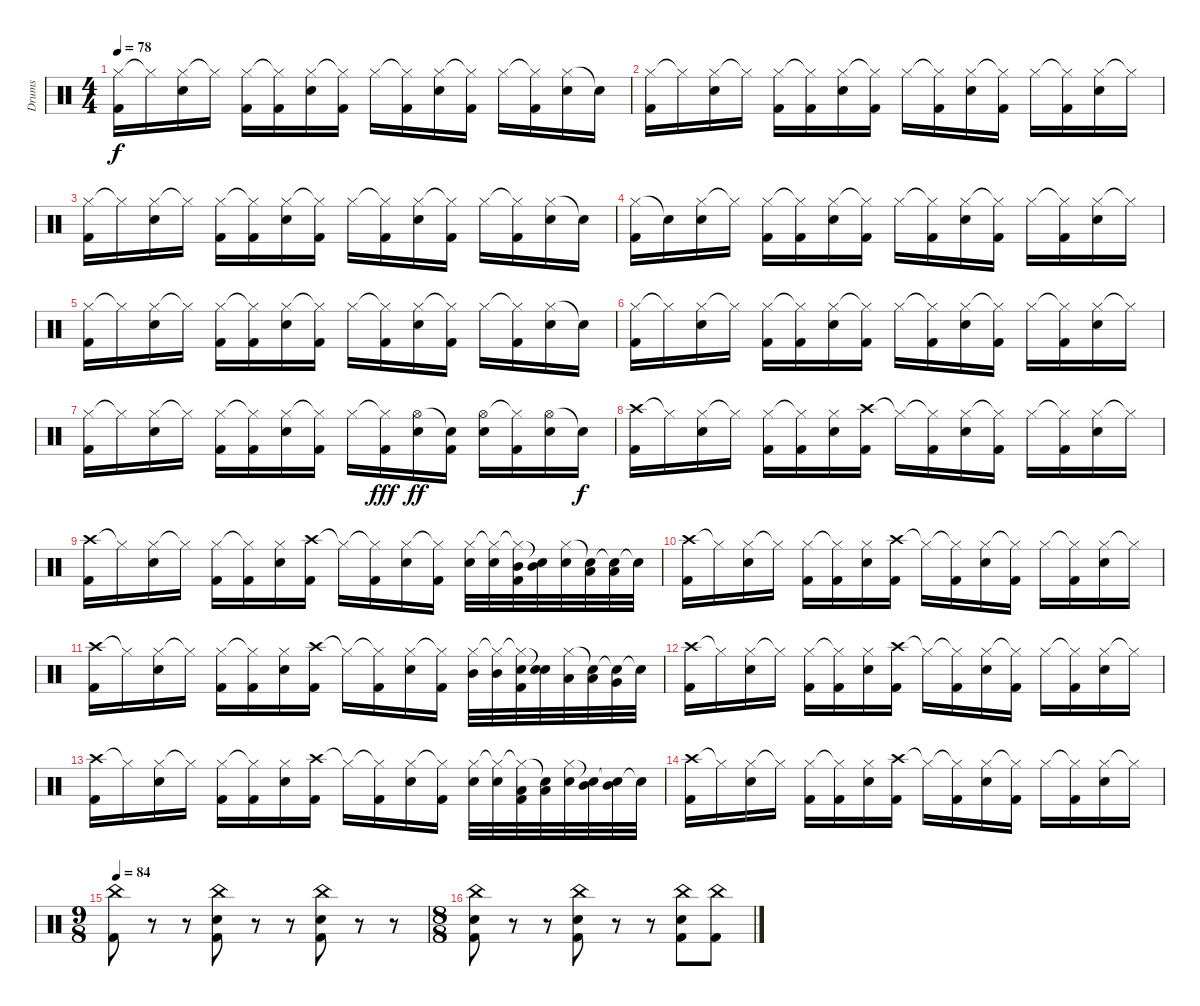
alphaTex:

\track ("Drums" "Drums") {instrument percussion}
\staff {score}
\articulation defaults
\ts (4 4)
\tempo 78
\clef neutral
\ks c
("Hi-Hat (closed)" "Kick (hit) 2").16{dy f} "Hi-Hat (closed)"{t}.16 ("Hi-Hat (closed)" "Electric Snare (hit)").16 "Hi-Hat (closed)"{t}.16 ("Hi-Hat (closed)" "Kick (hit) 2").16 ("Hi-Hat (closed)"{t} "Kick (hit) 2").16 ("Hi-Hat (closed)" "Electric Snare (hit)").16 ("Hi-Hat (closed)"{t} "Kick (hit) 2").16 "Hi-Hat (closed)".16 ("Hi-Hat (closed)"{t} "Kick (hit) 2").16 ("Hi-Hat (closed)" "Electric Snare (hit)").16 ("Hi-Hat (closed)"{t} "Kick (hit) 2").16 "Hi-Hat (closed)".16 ("Hi-Hat (closed)"{t} "Kick (hit) 2").16 ("Hi-Hat (closed)" "Electric Snare (hit)").16 "Snare (hit)"{t}.16 |
("Hi-Hat (closed)" "Kick (hit) 2").16 "Hi-Hat (closed)"{t}.16 ("Hi-Hat (closed)" "Electric Snare (hit)").16 "Hi-Hat (closed)"{t}.16 ("Hi-Hat (closed)" "Kick (hit) 2").16 ("Hi-Hat (closed)"{t} "Kick (hit) 2").16 ("Hi-Hat (closed)" "Electric Snare (hit)").16 ("Hi-Hat (closed)"{t} "Kick (hit) 2").16 "Hi-Hat (closed)".16 ("Hi-Hat (closed)"{t} "Kick (hit) 2").16 ("Hi-Hat (closed)" "Electric Snare (hit)").16 ("Hi-Hat (closed)"{t} "Kick (hit) 2").16 "Hi-Hat (closed)".16 ("Hi-Hat (closed)"{t} "Kick (hit) 2").16 ("Hi-Hat (closed)" "Electric Snare (hit)").16 "Hi-Hat (closed)"{t}.16 |
("Hi-Hat (closed)" "Kick (hit) 2").16 "Hi-Hat (closed)"{t}.16 ("Hi-Hat (closed)" "Electric Snare (hit)").16 "Hi-Hat (closed)"{t}.16 ("Hi-Hat (closed)" "Kick (hit) 2").16 ("Hi-Hat (closed)"{t} "Kick (hit) 2").16 ("Hi-Hat (closed)" "Electric Snare (hit)").16 ("Hi-Hat (closed)"{t} "Kick (hit) 2").16 "Hi-Hat (closed)".16 ("Hi-Hat (closed)"{t} "Kick (hit) 2").16 ("Hi-Hat (closed)" "Electric Snare (hit)").16 ("Hi-Hat (closed)"{t} "Kick (hit) 2").16 "Hi-Hat (closed)".16 ("Hi-Hat (closed)"{t} "Kick (hit) 2").16 ("Hi-Hat (closed)" "Electric Snare (hit)").16 "Snare (hit)"{t}.16 |
("Hi-Hat (closed)" "Kick (hit) 2").16 "Snare (hit)"{t}.16 ("Hi-Hat (closed)" "Electric Snare (hit)").16 "Hi-Hat (closed)"{t}.16 ("Hi-Hat (closed)" "Kick (hit) 2").16 ("Hi-Hat (closed)"{t} "Kick (hit) 2").16 ("Hi-Hat (closed)" "Electric Snare (hit)").16 ("Hi-Hat (closed)"{t} "Kick (hit) 2").16 "Hi-Hat (closed)".16 ("Hi-Hat (closed)"{t} "Kick (hit) 2").16 ("Hi-Hat (closed)" "Electric Snare (hit)").16 ("Hi-Hat (closed)"{t} "Kick (hit) 2").16 "Hi-Hat (closed)".16 ("Hi-Hat (closed)"{t} "Kick (hit) 2").16 ("Hi-Hat (closed)" "Electric Snare (hit)").16 "Hi-Hat (closed)"{t}.16 |
("Hi-Hat (closed)" "Kick (hit) 2").16 "Hi-Hat (closed)"{t}.16 ("Hi-Hat (closed)" "Electric Snare (hit)").16 "Hi-Hat (closed)"{t}.16 ("Hi-Hat (closed)" "Kick (hit) 2").16 ("Hi-Hat (closed)"{t} "Kick (hit) 2").16 ("Hi-Hat (closed)" "Electric Snare (hit)").16 ("Hi-Hat (closed)"{t} "Kick (hit) 2").16 "Hi-Hat (closed)".16 ("Hi-Hat (closed)"{t} "Kick (hit) 2").16 ("Hi-Hat (closed)" "Electric Snare (hit)").16 ("Hi-Hat (closed)"{t} "Kick (hit) 2").16 "Hi-Hat (closed)".16 ("Hi-Hat (closed)"{t} "Kick (hit) 2").16 ("Hi-Hat (closed)" "Electric Snare (hit)").16 "Snare (hit)"{t}.16 |
("Hi-Hat (closed)" "Kick (hit) 2").16 "Hi-Hat (closed)"{t}.16 ("Hi-Hat (closed)" "Electric Snare (hit)").16 "Hi-Hat (closed)"{t}.16 ("Hi-Hat (closed)" "Kick (hit) 2").16 ("Hi-Hat (closed)"{t} "Kick (hit) 2").16 ("Hi-Hat (closed)" "Electric Snare (hit)").16 ("Hi-Hat (closed)"{t} "Kick (hit) 2").16 "Hi-Hat (closed)".16 ("Hi-Hat (closed)"{t} "Kick (hit) 2").16 ("Hi-Hat (closed)" "Electric Snare (hit)").16 ("Hi-Hat (closed)"{t} "Kick (hit) 2").16 "Hi-Hat (closed)".16 ("Hi-Hat (closed)"{t} "Kick (hit) 2").16 ("Hi-Hat (closed)" "Electric Snare (hit)").16 "Hi-Hat (closed)"{t}.16 |
("Hi-Hat (closed)" "Kick (hit) 2").16 "Hi-Hat (closed)"{t}.16 ("Hi-Hat (closed)" "Electric Snare (hit)").16 "Hi-Hat (closed)"{t}.16 ("Hi-Hat (closed)" "Kick (hit) 2").16 ("Hi-Hat (closed)"{t} "Kick (hit) 2").16 ("Hi-Hat (closed)" "Electric Snare (hit)").16 ("Hi-Hat (closed)"{t} "Kick (hit) 2").16 "Hi-Hat (closed)".16 ("Hi-Hat (closed)"{t} "Kick (hit) 2").16{dy fff} ("Hi-Hat (open)" "Electric Snare (hit)").16{dy ff} ("Snare (hit)"{t} "Kick (hit) 2").16 ("Hi-Hat (open)" "Electric Snare (hit)").16 ("Hi-Hat (closed)"{t} "Kick (hit) 2").16 ("Hi-Hat (open)" "Electric Snare (hit)").16 "Snare (hit)"{t}.16{dy f} |
("Crash high (hit)" "Kick (hit) 2").16 "Hi-Hat (closed)"{t}.16 ("Hi-Hat (closed)" "Electric Snare (hit)").16 "Hi-Hat (closed)"{t}.16 ("Hi-Hat (closed)" "Kick (hit) 2").16 ("Hi-Hat (closed)"{t} "Kick (hit) 2").16 ("Hi-Hat (closed)" "Electric Snare (hit)").16 ("Crash high (hit)" "Kick (hit) 2").16 "Hi-Hat (closed)"{t}.16 ("Hi-Hat (closed)"{t} "Kick (hit) 2").16 ("Hi-Hat (closed)" "Electric Snare (hit)").16 ("Hi-Hat (closed)"{t} "Kick (hit) 2").16 "Hi-Hat (closed)".16 ("Hi-Hat (closed)"{t} "Kick (hit) 2").16 ("Hi-Hat (closed)" "Electric Snare (hit)").16 "Hi-Hat (closed)"{t}.16 |
("Crash high (hit)" "Kick (hit) 2").16 "Hi-Hat (closed)"{t}.16 ("Hi-Hat (closed)" "Electric Snare (hit)").16 "Hi-Hat (closed)"{t}.16 ("Hi-Hat (closed)" "Kick (hit) 2").16 ("Hi-Hat (closed)"{t} "Kick (hit) 2").16 ("Hi-Hat (closed)" "Electric Snare (hit)").16 ("Crash high (hit)" "Kick (hit) 2").16 "Hi-Hat (closed)"{t}.16 ("Hi-Hat (closed)"{t} "Kick (hit) 2").16 ("Hi-Hat (closed)" "Electric Snare (hit)").16 ("Hi-Hat (closed)"{t} "Kick (hit) 2").16 ("Hi-Hat (closed)" "Electric Snare (hit)").32 ("Hi-Hat (closed)"{t} "Electric Snare (hit)").32 ("Hi-Hat (closed)"{t} "Mid Tom (hit)" "Kick (hit) 2").32 ("Snare (hit)"{t} "Mid Tom (hit)").32 ("Hi-Hat (closed)" "Electric Snare (hit)").32 ("Snare (hit)"{t} "Low Tom (hit)").32 ("Snare (hit)"{t} "Low Tom (hit)").32 "Snare (hit)"{t}.32 |
("Crash high (hit)" "Kick (hit) 2").16 "Hi-Hat (closed)"{t}.16 ("Hi-Hat (closed)" "Electric Snare (hit)").16 "Hi-Hat (closed)"{t}.16 ("Hi-Hat (closed)" "Kick (hit) 2").16 ("Hi-Hat (closed)"{t} "Kick (hit) 2").16 ("Hi-Hat (closed)" "Electric Snare (hit)").16 ("Crash high (hit)" "Kick (hit) 2").16 "Hi-Hat (closed)"{t}.16 ("Hi-Hat (closed)"{t} "Kick (hit) 2").16 ("Hi-Hat (closed)" "Electric Snare (hit)").16 ("Hi-Hat (closed)"{t} "Kick (hit) 2").16 "Hi-Hat (closed)".16 ("Hi-Hat (closed)"{t} "Kick (hit) 2").16 ("Hi-Hat (closed)" "Electric Snare (hit)").16 "Hi-Hat (closed)"{t}.16 |
("Crash high (hit)" "Kick (hit) 2").16 "Hi-Hat (closed)"{t}.16 ("Hi-Hat (closed)" "Electric Snare (hit)").16 "Hi-Hat (closed)"{t}.16 ("Hi-Hat (closed)" "Kick (hit) 2").16 ("Hi-Hat (closed)"{t} "Kick (hit) 2").16 ("Hi-Hat (closed)" "Electric Snare (hit)").16 ("Crash high (hit)" "Kick (hit) 2").16 "Hi-Hat (closed)"{t}.16 ("Hi-Hat (closed)"{t} "Kick (hit) 2").16 ("Hi-Hat (closed)" "Electric Snare (hit)").16 ("Hi-Hat (closed)"{t} "Kick (hit) 2").16 ("Hi-Hat (closed)" "Mid Tom (hit)").32 ("Hi-Hat (closed)"{t} "Mid Tom (hit)").32 ("Hi-Hat (closed)"{t} "Electric Snare (hit)" "Kick (hit) 2").32 ("Snare (hit)"{t} "Electric Snare (hit)").32 ("Hi-Hat (closed)" "Low Tom (hit)").32 ("Snare (hit)"{t} "Low Tom (hit)").32 ("Snare (hit)"{t} "Very Low Tom (hit)").32 "Snare (hit)"{t}.32 |
("Crash high (hit)" "Kick (hit) 2").16 "Hi-Hat (closed)"{t}.16 ("Hi-Hat (closed)" "Electric Snare (hit)").16 "Hi-Hat (closed)"{t}.16 ("Hi-Hat (closed)" "Kick (hit) 2").16 ("Hi-Hat (closed)"{t} "Kick (hit) 2").16 ("Hi-Hat (closed)" "Electric Snare (hit)").16 ("Crash high (hit)" "Kick (hit) 2").16 "Hi-Hat (closed)"{t}.16 ("Hi-Hat (closed)"{t} "Kick (hit) 2").16 ("Hi-Hat (closed)" "Electric Snare (hit)").16 ("Hi-Hat (closed)"{t} "Kick (hit) 2").16 "Hi-Hat (closed)".16 ("Hi-Hat (closed)"{t} "Kick (hit) 2").16 ("Hi-Hat (closed)" "Electric Snare (hit)").16 "Hi-Hat (closed)"{t}.16 |
("Crash high (hit)" "Kick (hit) 2").16 "Hi-Hat (closed)"{t}.16 ("Hi-Hat (closed)" "Electric Snare (hit)").16 "Hi-Hat (closed)"{t}.16 ("Hi-Hat (closed)" "Kick (hit) 2").16 ("Hi-Hat (closed)"{t} "Kick (hit) 2").16 ("Hi-Hat (closed)" "Electric Snare (hit)").16 ("Crash high (hit)" "Kick (hit) 2").16 "Hi-Hat (closed)"{t}.16 ("Hi-Hat (closed)"{t} "Kick (hit) 2").16 ("Hi-Hat (closed)" "Electric Snare (hit)").16 ("Hi-Hat (closed)"{t} "Kick (hit) 2").16 ("Hi-Hat (closed)" "Electric Snare (hit)").32 ("Hi-Hat (closed)"{t} "Electric Snare (hit)").32 ("Hi-Hat (closed)"{t} "Low Tom (hit)" "Kick (hit) 2").32 ("Snare (hit)"{t} "Low Tom (hit)").32 ("Hi-Hat (closed)" "Electric Snare (hit)").32 ("Snare (hit)"{t} "Mid Tom (hit)").32 ("Snare (hit)"{t} "Mid Tom (hit)").32 "Snare (hit)"{t}.32 |
("Crash high (hit)" "Kick (hit) 2").16 "Hi-Hat (closed)"{t}.16 ("Hi-Hat (closed)" "Electric Snare (hit)").16 "Hi-Hat (closed)"{t}.16 ("Hi-Hat (closed)" "Kick (hit) 2").16 ("Hi-Hat (closed)"{t} "Kick (hit) 2").16 ("Hi-Hat (closed)" "Electric Snare (hit)").16 ("Crash high (hit)" "Kick (hit) 2").16 "Hi-Hat (closed)"{t}.16 ("Hi-Hat (closed)"{t} "Kick (hit) 2").16 ("Hi-Hat (closed)" "Electric Snare (hit)").16 ("Hi-Hat (closed)"{t} "Kick (hit) 2").16 "Hi-Hat (closed)".16 ("Hi-Hat (closed)"{t} "Kick (hit) 2").16 ("Hi-Hat (closed)" "Electric Snare (hit)").16 "Hi-Hat (closed)"{t}.16 |
\ts (9 8)
\tempo 84
("China (hit)" "Kick (hit) 2").8 r.8 r.8 ("China (hit)" "Electric Snare (hit)" "Kick (hit) 2").8 r.8 r.8 ("China (hit)" "Electric Snare (hit)" "Kick (hit) 2").8 r.8 r.8 |
\ts (8 8)
("China (hit)" "Electric Snare (hit)" "Kick (hit) 2").8 r.8 r.8 ("China (hit)" "Electric Snare (hit)" "Kick (hit) 2").8 r.8 r.8 ("China (hit)" "Electric Snare (hit)" "Kick (hit) 2").8 ("China (hit)" "Kick (hit) 2").8
